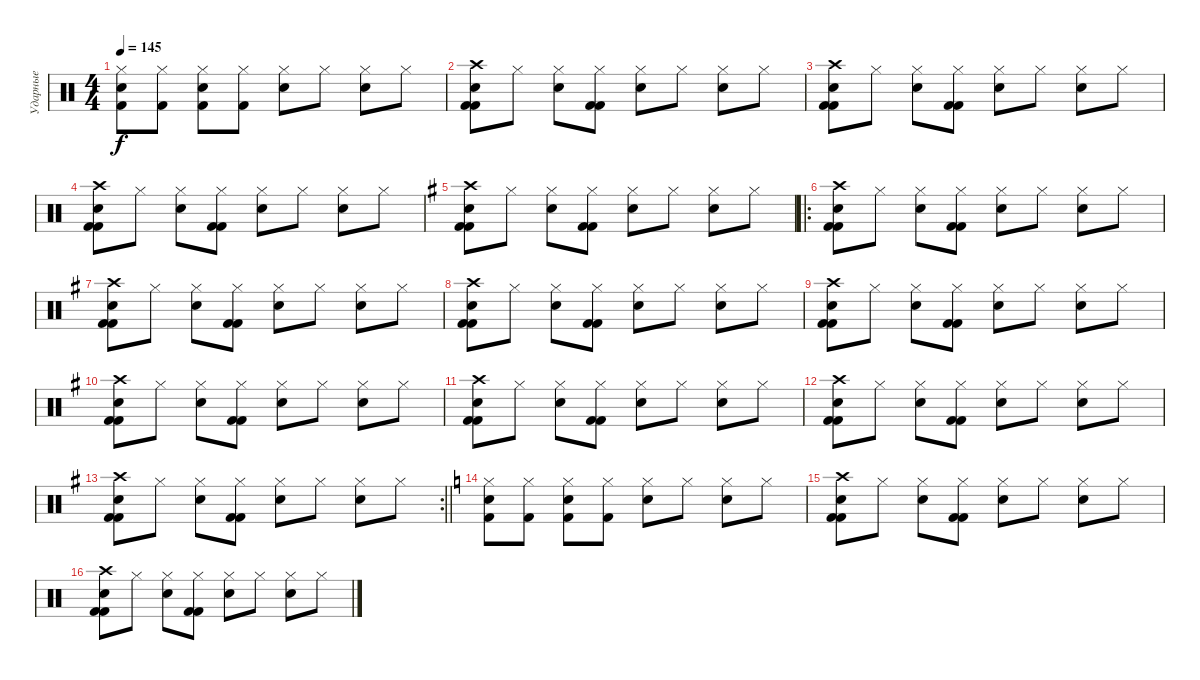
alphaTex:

\track ("Ударные" "Ударные") {instrument percussion}
\staff {score}
\articulation defaults
\ts (4 4)
\section ("" "")
\tempo 145
\clef neutral
\ks c
("Electric Snare (hit)" "Hi-Hat (closed)" "Kick (hit) 2").8{dy f} ("Hi-Hat (closed)" "Kick (hit) 2").8 ("Electric Snare (hit)" "Hi-Hat (closed)" "Kick (hit) 2").8 ("Hi-Hat (closed)" "Kick (hit) 2").8 ("Electric Snare (hit)" "Hi-Hat (closed)").8 "Hi-Hat (closed)".8 ("Electric Snare (hit)" "Hi-Hat (closed)").8 "Hi-Hat (closed)".8 |
("Electric Snare (hit)" "Crash high (hit)" "Kick (hit) 2" "Kick (hit) 2").8 "Hi-Hat (closed)".8 ("Electric Snare (hit)" "Hi-Hat (closed)").8 ("Hi-Hat (closed)" "Kick (hit) 2" "Kick (hit) 2").8 ("Electric Snare (hit)" "Hi-Hat (closed)").8 "Hi-Hat (closed)".8 ("Electric Snare (hit)" "Hi-Hat (closed)").8 "Hi-Hat (closed)".8 |
("Electric Snare (hit)" "Crash high (hit)" "Kick (hit) 2" "Kick (hit) 2").8 "Hi-Hat (closed)".8 ("Electric Snare (hit)" "Hi-Hat (closed)").8 ("Hi-Hat (closed)" "Kick (hit) 2" "Kick (hit) 2").8 ("Electric Snare (hit)" "Hi-Hat (closed)").8 "Hi-Hat (closed)".8 ("Electric Snare (hit)" "Hi-Hat (closed)").8 "Hi-Hat (closed)".8 |
("Electric Snare (hit)" "Crash high (hit)" "Kick (hit) 2" "Kick (hit) 2").8 "Hi-Hat (closed)".8 ("Electric Snare (hit)" "Hi-Hat (closed)").8 ("Hi-Hat (closed)" "Kick (hit) 2" "Kick (hit) 2").8 ("Electric Snare (hit)" "Hi-Hat (closed)").8 "Hi-Hat (closed)".8 ("Electric Snare (hit)" "Hi-Hat (closed)").8 "Hi-Hat (closed)".8 |
\ks g
("Electric Snare (hit)" "Crash high (hit)" "Kick (hit) 2" "Kick (hit) 2").8 "Hi-Hat (closed)".8 ("Electric Snare (hit)" "Hi-Hat (closed)").8 ("Hi-Hat (closed)" "Kick (hit) 2" "Kick (hit) 2").8 ("Electric Snare (hit)" "Hi-Hat (closed)").8 "Hi-Hat (closed)".8 ("Electric Snare (hit)" "Hi-Hat (closed)").8 "Hi-Hat (closed)".8 |
\ro
("Electric Snare (hit)" "Crash high (hit)" "Kick (hit) 2" "Kick (hit) 2").8 "Hi-Hat (closed)".8 ("Electric Snare (hit)" "Hi-Hat (closed)").8 ("Hi-Hat (closed)" "Kick (hit) 2" "Kick (hit) 2").8 ("Electric Snare (hit)" "Hi-Hat (closed)").8 "Hi-Hat (closed)".8 ("Electric Snare (hit)" "Hi-Hat (closed)").8 "Hi-Hat (closed)".8 |
("Electric Snare (hit)" "Crash high (hit)" "Kick (hit) 2" "Kick (hit) 2").8 "Hi-Hat (closed)".8 ("Electric Snare (hit)" "Hi-Hat (closed)").8 ("Hi-Hat (closed)" "Kick (hit) 2" "Kick (hit) 2").8 ("Electric Snare (hit)" "Hi-Hat (closed)").8 "Hi-Hat (closed)".8 ("Electric Snare (hit)" "Hi-Hat (closed)").8 "Hi-Hat (closed)".8 |
("Electric Snare (hit)" "Crash high (hit)" "Kick (hit) 2" "Kick (hit) 2").8 "Hi-Hat (closed)".8 ("Electric Snare (hit)" "Hi-Hat (closed)").8 ("Hi-Hat (closed)" "Kick (hit) 2" "Kick (hit) 2").8 ("Electric Snare (hit)" "Hi-Hat (closed)").8 "Hi-Hat (closed)".8 ("Electric Snare (hit)" "Hi-Hat (closed)").8 "Hi-Hat (closed)".8 |
("Electric Snare (hit)" "Crash high (hit)" "Kick (hit) 2" "Kick (hit) 2").8 "Hi-Hat (closed)".8 ("Electric Snare (hit)" "Hi-Hat (closed)").8 ("Hi-Hat (closed)" "Kick (hit) 2" "Kick (hit) 2").8 ("Electric Snare (hit)" "Hi-Hat (closed)").8 "Hi-Hat (closed)".8 ("Electric Snare (hit)" "Hi-Hat (closed)").8 "Hi-Hat (closed)".8 |
("Electric Snare (hit)" "Crash high (hit)" "Kick (hit) 2" "Kick (hit) 2").8 "Hi-Hat (closed)".8 ("Electric Snare (hit)" "Hi-Hat (closed)").8 ("Hi-Hat (closed)" "Kick (hit) 2" "Kick (hit) 2").8 ("Electric Snare (hit)" "Hi-Hat (closed)").8 "Hi-Hat (closed)".8 ("Electric Snare (hit)" "Hi-Hat (closed)").8 "Hi-Hat (closed)".8 |
("Electric Snare (hit)" "Crash high (hit)" "Kick (hit) 2" "Kick (hit) 2").8 "Hi-Hat (closed)".8 ("Electric Snare (hit)" "Hi-Hat (closed)").8 ("Hi-Hat (closed)" "Kick (hit) 2" "Kick (hit) 2").8 ("Electric Snare (hit)" "Hi-Hat (closed)").8 "Hi-Hat (closed)".8 ("Electric Snare (hit)" "Hi-Hat (closed)").8 "Hi-Hat (closed)".8 |
("Electric Snare (hit)" "Crash high (hit)" "Kick (hit) 2" "Kick (hit) 2").8 "Hi-Hat (closed)".8 ("Electric Snare (hit)" "Hi-Hat (closed)").8 ("Hi-Hat (closed)" "Kick (hit) 2" "Kick (hit) 2").8 ("Electric Snare (hit)" "Hi-Hat (closed)").8 "Hi-Hat (closed)".8 ("Electric Snare (hit)" "Hi-Hat (closed)").8 "Hi-Hat (closed)".8 |
\rc 2
\barLineRight lightlight
("Electric Snare (hit)" "Crash high (hit)" "Kick (hit) 2" "Kick (hit) 2").8 "Hi-Hat (closed)".8 ("Electric Snare (hit)" "Hi-Hat (closed)").8 ("Hi-Hat (closed)" "Kick (hit) 2" "Kick (hit) 2").8 ("Electric Snare (hit)" "Hi-Hat (closed)").8 "Hi-Hat (closed)".8 ("Electric Snare (hit)" "Hi-Hat (closed)").8 "Hi-Hat (closed)".8 |
\ks c
("Electric Snare (hit)" "Hi-Hat (closed)" "Kick (hit) 2").8 ("Hi-Hat (closed)" "Kick (hit) 2").8 ("Electric Snare (hit)" "Hi-Hat (closed)" "Kick (hit) 2").8 ("Hi-Hat (closed)" "Kick (hit) 2").8 ("Electric Snare (hit)" "Hi-Hat (closed)").8 "Hi-Hat (closed)".8 ("Electric Snare (hit)" "Hi-Hat (closed)").8 "Hi-Hat (closed)".8 |
("Electric Snare (hit)" "Crash high (hit)" "Kick (hit) 2" "Kick (hit) 2").8 "Hi-Hat (closed)".8 ("Electric Snare (hit)" "Hi-Hat (closed)").8 ("Hi-Hat (closed)" "Kick (hit) 2" "Kick (hit) 2").8 ("Electric Snare (hit)" "Hi-Hat (closed)").8 "Hi-Hat (closed)".8 ("Electric Snare (hit)" "Hi-Hat (closed)").8 "Hi-Hat (closed)".8 |
("Electric Snare (hit)" "Crash high (hit)" "Kick (hit) 2" "Kick (hit) 2").8 "Hi-Hat (closed)".8 ("Electric Snare (hit)" "Hi-Hat (closed)").8 ("Hi-Hat (closed)" "Kick (hit) 2" "Kick (hit) 2").8 ("Electric Snare (hit)" "Hi-Hat (closed)").8 "Hi-Hat (closed)".8 ("Electric Snare (hit)" "Hi-Hat (closed)").8 "Hi-Hat (closed)".8
